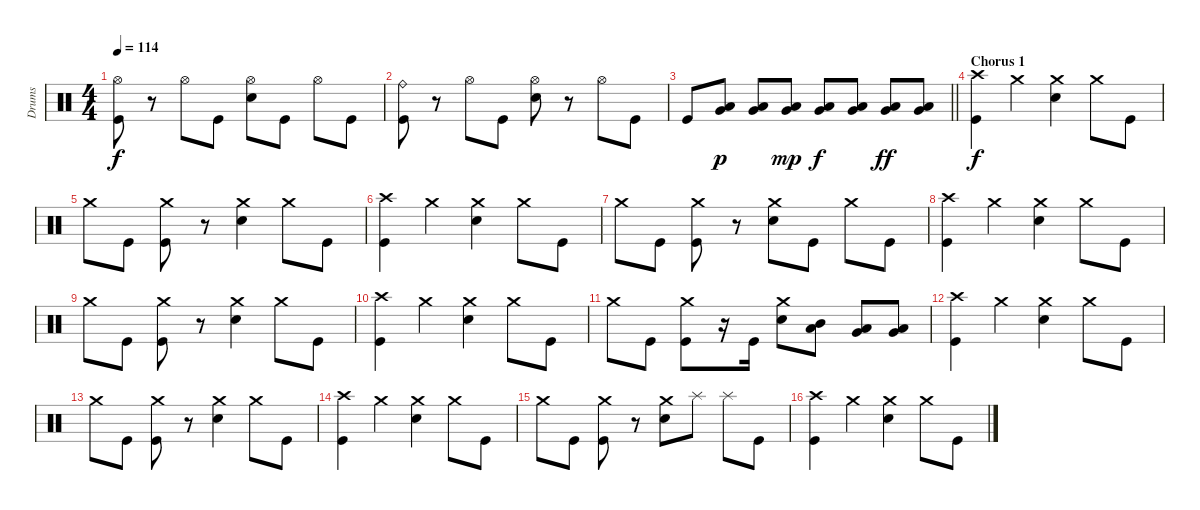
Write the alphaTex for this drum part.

\track ("Drums" "Drums") {instrument percussion}
\staff {score}
\articulation defaults
\ts (4 4)
\tempo 114
\clef neutral
\ks c
("Hi-Hat (open)" "Kick (hit)").8{dy f} r.8 "Hi-Hat (open)".8 "Kick (hit)".8 ("Hi-Hat (open)" "Electric Snare (hit)").8 "Kick (hit)".8 "Hi-Hat (open)".8 "Kick (hit)".8 |
("Ride (bell)" "Kick (hit)").8 r.8 "Hi-Hat (open)".8 "Kick (hit)".8 ("Hi-Hat (open)" "Electric Snare (hit)").8 r.8 "Hi-Hat (open)".8 "Kick (hit)".8 |
\barLineRight lightlight "Kick (hit)".8
("Very Low Tom (hit)" "Low Floor Tom (hit)").8{dy p} ("Very Low Tom (hit)" "Low Floor Tom (hit)").8 ("Very Low Tom (hit)" "Low Floor Tom (hit)").8{dy mp} ("Very Low Tom (hit)" "Low Floor Tom (hit)").8{dy f} ("Very Low Tom (hit)" "Low Floor Tom (hit)").8 ("Very Low Tom (hit)" "Low Floor Tom (hit)").8{dy ff} ("Very Low Tom (hit)" "Low Floor Tom (hit)").8 |
\section ("" "Chorus 1")
("Crash high (hit)" "Kick (hit)").4{dy f} "Crash medium (hit)".4 ("Crash medium (hit)" "Electric Snare (hit)").4 "Crash medium (hit)".8 "Kick (hit)".8 |
"Crash medium (hit)".8 "Kick (hit)".8 ("Crash medium (hit)" "Kick (hit)").8 r.8 ("Crash medium (hit)" "Electric Snare (hit)").4 "Crash medium (hit)".8 "Kick (hit)".8 |
("Crash high (hit)" "Kick (hit)").4 "Crash medium (hit)".4 ("Crash medium (hit)" "Electric Snare (hit)").4 "Crash medium (hit)".8 "Kick (hit)".8 |
"Crash medium (hit)".8 "Kick (hit)".8 ("Crash medium (hit)" "Kick (hit)").8 r.8 ("Crash medium (hit)" "Electric Snare (hit)").8 "Kick (hit)".8 "Crash medium (hit)".8 "Kick (hit)".8 |
("Crash high (hit)" "Kick (hit)").4 "Crash medium (hit)".4 ("Crash medium (hit)" "Electric Snare (hit)").4 "Crash medium (hit)".8 "Kick (hit)".8 |
"Crash medium (hit)".8 "Kick (hit)".8 ("Crash medium (hit)" "Kick (hit)").8 r.8 ("Crash medium (hit)" "Electric Snare (hit)").4 "Crash medium (hit)".8 "Kick (hit)".8 |
("Crash high (hit)" "Kick (hit)").4 "Crash medium (hit)".4 ("Crash medium (hit)" "Electric Snare (hit)").4 "Crash medium (hit)".8 "Kick (hit)".8 |
"Crash medium (hit)".8 "Kick (hit)".8 ("Crash medium (hit)" "Kick (hit)").8 r.16 "Kick (hit)".16 ("Crash medium (hit)" "Electric Snare (hit)").8 ("Mid Tom (hit)" "Low Tom (hit)").8 ("Low Tom (hit)" "Very Low Tom (hit)").8 ("Very Low Tom (hit)" "Low Floor Tom (hit)").8 |
("Crash high (hit)" "Kick (hit)").4 "Crash medium (hit)".4 ("Crash medium (hit)" "Electric Snare (hit)").4 "Crash medium (hit)".8 "Kick (hit)".8 |
"Crash medium (hit)".8 "Kick (hit)".8 ("Crash medium (hit)" "Kick (hit)").8 r.8 ("Crash medium (hit)" "Electric Snare (hit)").4 "Crash medium (hit)".8 "Kick (hit)".8 |
("Crash high (hit)" "Kick (hit)").4 "Crash medium (hit)".4 ("Crash medium (hit)" "Electric Snare (hit)").4 "Crash medium (hit)".8 "Kick (hit)".8 |
"Crash medium (hit)".8 "Kick (hit)".8 ("Crash medium (hit)" "Kick (hit)").8 r.8 ("Crash medium (hit)" "Electric Snare (hit)").8 "Splash (hit)".8 "Splash (hit)".8 "Kick (hit)".8 |
("Crash high (hit)" "Kick (hit)").4 "Crash medium (hit)".4 ("Crash medium (hit)" "Electric Snare (hit)").4 "Crash medium (hit)".8 "Kick (hit)".8
